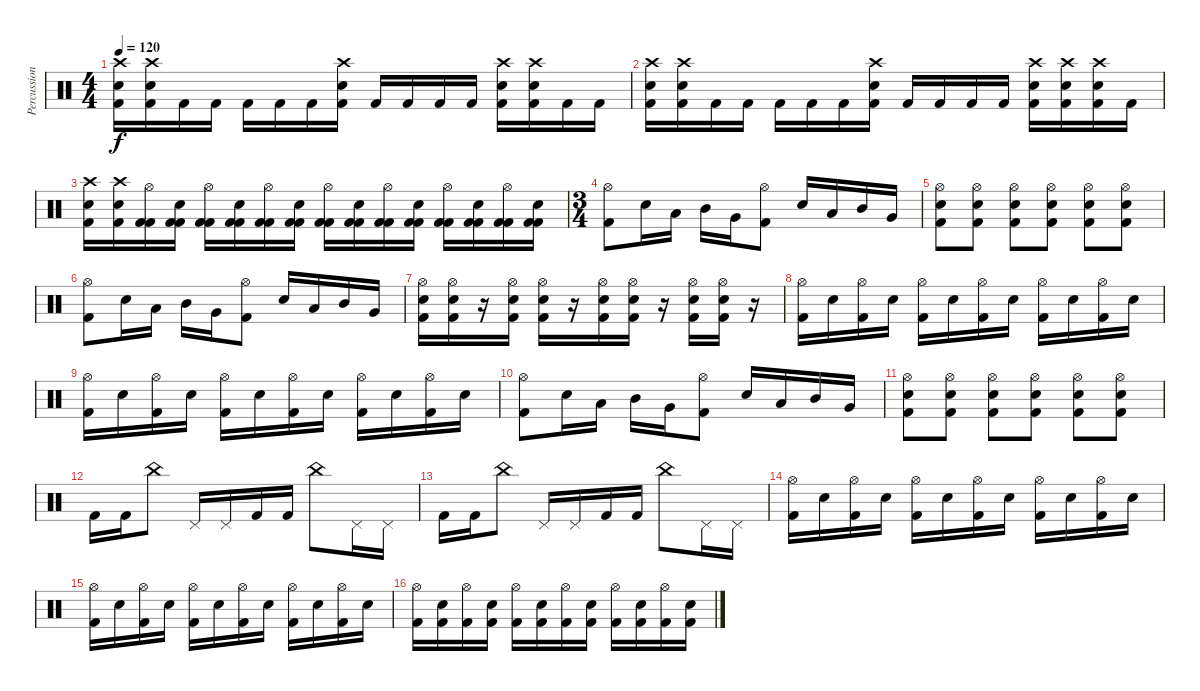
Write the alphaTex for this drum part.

\track ("Percussion" "Percussion") {instrument percussion}
\staff {score}
\articulation defaults
\ts (4 4)
\tempo 120
\clef neutral
\ks c
("Crash high (hit)" "Electric Snare (hit)" "Kick (hit) 2").16{dy f} ("Crash high (hit)" "Electric Snare (hit)" "Kick (hit) 2").16 "Kick (hit) 2".16 "Kick (hit) 2".16 "Kick (hit) 2".16 "Kick (hit) 2".16 "Kick (hit) 2".16 ("Crash high (hit)" "Electric Snare (hit)" "Kick (hit) 2").16 "Kick (hit) 2".16 "Kick (hit) 2".16 "Kick (hit) 2".16 "Kick (hit) 2".16 ("Crash high (hit)" "Electric Snare (hit)" "Kick (hit) 2").16 ("Crash high (hit)" "Electric Snare (hit)" "Kick (hit) 2").16 "Kick (hit) 2".16 "Kick (hit) 2".16 |
("Crash high (hit)" "Electric Snare (hit)" "Kick (hit) 2").16 ("Crash high (hit)" "Electric Snare (hit)" "Kick (hit) 2").16 "Kick (hit) 2".16 "Kick (hit) 2".16 "Kick (hit) 2".16 "Kick (hit) 2".16 "Kick (hit) 2".16 ("Crash high (hit)" "Electric Snare (hit)" "Kick (hit) 2").16 "Kick (hit) 2".16 "Kick (hit) 2".16 "Kick (hit) 2".16 "Kick (hit) 2".16 ("Crash high (hit)" "Electric Snare (hit)" "Kick (hit) 2").16 ("Crash high (hit)" "Electric Snare (hit)" "Kick (hit) 2").16 ("Crash high (hit)" "Electric Snare (hit)" "Kick (hit) 2").16 "Kick (hit) 2".16 |
("Crash high (hit)" "Electric Snare (hit)" "Kick (hit) 2").16 ("Crash high (hit)" "Electric Snare (hit)" "Kick (hit) 2").16 ("Kick (hit) 2" "Hi-Hat (open)" "Kick (hit) 2").16 ("Kick (hit) 2" "Electric Snare (hit)" "Kick (hit) 2").16 ("Kick (hit) 2" "Hi-Hat (open)" "Kick (hit) 2").16 ("Kick (hit) 2" "Electric Snare (hit)" "Kick (hit) 2").16 ("Kick (hit) 2" "Hi-Hat (open)" "Kick (hit) 2").16 ("Kick (hit) 2" "Electric Snare (hit)" "Kick (hit) 2").16 ("Kick (hit) 2" "Hi-Hat (open)" "Kick (hit) 2").16 ("Kick (hit) 2" "Electric Snare (hit)" "Kick (hit) 2").16 ("Kick (hit) 2" "Hi-Hat (open)" "Kick (hit) 2").16 ("Kick (hit) 2" "Electric Snare (hit)" "Kick (hit) 2").16 ("Kick (hit) 2" "Hi-Hat (open)" "Kick (hit) 2").16 ("Kick (hit) 2" "Electric Snare (hit)" "Kick (hit) 2").16 ("Kick (hit) 2" "Hi-Hat (open)" "Kick (hit) 2").16 ("Kick (hit) 2" "Electric Snare (hit)" "Kick (hit) 2").16 |
\ts (3 4)
("Hi-Hat (open)" "Kick (hit) 2").8 "Electric Snare (hit)".16 "Low Floor Tom (hit)".16 "Mid Tom (hit)".16 "Very Low Tom (hit)".16 ("Hi-Hat (open)" "Kick (hit) 2").8 "Electric Snare (hit)".16 "Low Floor Tom (hit)".16 "Mid Tom (hit)".16 "Very Low Tom (hit)".16 |
("Hi-Hat (open)" "Kick (hit) 2" "Electric Snare (hit)").8 ("Hi-Hat (open)" "Kick (hit) 2" "Electric Snare (hit)").8 ("Hi-Hat (open)" "Kick (hit) 2" "Electric Snare (hit)").8 ("Hi-Hat (open)" "Kick (hit) 2" "Electric Snare (hit)").8 ("Hi-Hat (open)" "Kick (hit) 2" "Electric Snare (hit)").8 ("Hi-Hat (open)" "Kick (hit) 2" "Electric Snare (hit)").8 |
("Hi-Hat (open)" "Kick (hit) 2").8 "Electric Snare (hit)".16 "Low Floor Tom (hit)".16 "Mid Tom (hit)".16 "Very Low Tom (hit)".16 ("Hi-Hat (open)" "Kick (hit) 2").8 "Electric Snare (hit)".16 "Low Floor Tom (hit)".16 "Mid Tom (hit)".16 "Very Low Tom (hit)".16 |
("Hi-Hat (open)" "Electric Snare (hit)" "Kick (hit) 2").16 ("Hi-Hat (open)" "Electric Snare (hit)" "Kick (hit) 2").16 r.16 ("Hi-Hat (open)" "Electric Snare (hit)" "Kick (hit) 2").16 ("Hi-Hat (open)" "Electric Snare (hit)" "Kick (hit) 2").16 r.16 ("Hi-Hat (open)" "Electric Snare (hit)" "Kick (hit) 2").16 ("Hi-Hat (open)" "Electric Snare (hit)" "Kick (hit) 2").16 r.16 ("Hi-Hat (open)" "Electric Snare (hit)" "Kick (hit) 2").16 ("Hi-Hat (open)" "Electric Snare (hit)" "Kick (hit) 2").16 r.16 |
("Hi-Hat (open)" "Kick (hit) 2").16 "Electric Snare (hit)".16 ("Hi-Hat (open)" "Kick (hit) 2").16 "Electric Snare (hit)".16 ("Hi-Hat (open)" "Kick (hit) 2").16 "Electric Snare (hit)".16 ("Hi-Hat (open)" "Kick (hit) 2").16 "Electric Snare (hit)".16 ("Hi-Hat (open)" "Kick (hit) 2").16 "Electric Snare (hit)".16 ("Hi-Hat (open)" "Kick (hit) 2").16 "Electric Snare (hit)".16 |
("Hi-Hat (open)" "Kick (hit) 2").16 "Electric Snare (hit)".16 ("Hi-Hat (open)" "Kick (hit) 2").16 "Electric Snare (hit)".16 ("Hi-Hat (open)" "Kick (hit) 2").16 "Electric Snare (hit)".16 ("Hi-Hat (open)" "Kick (hit) 2").16 "Electric Snare (hit)".16 ("Hi-Hat (open)" "Kick (hit) 2").16 "Electric Snare (hit)".16 ("Hi-Hat (open)" "Kick (hit) 2").16 "Electric Snare (hit)".16 |
("Hi-Hat (open)" "Kick (hit) 2").8 "Electric Snare (hit)".16 "Low Floor Tom (hit)".16 "Mid Tom (hit)".16 "Very Low Tom (hit)".16 ("Hi-Hat (open)" "Kick (hit) 2").8 "Electric Snare (hit)".16 "Low Floor Tom (hit)".16 "Mid Tom (hit)".16 "Very Low Tom (hit)".16 |
("Hi-Hat (open)" "Kick (hit) 2" "Electric Snare (hit)").8 ("Hi-Hat (open)" "Kick (hit) 2" "Electric Snare (hit)").8 ("Hi-Hat (open)" "Kick (hit) 2" "Electric Snare (hit)").8 ("Hi-Hat (open)" "Kick (hit) 2" "Electric Snare (hit)").8 ("Hi-Hat (open)" "Kick (hit) 2" "Electric Snare (hit)").8 ("Hi-Hat (open)" "Kick (hit) 2" "Electric Snare (hit)").8 |
"Kick (hit) 2".16 "Kick (hit) 2".16 "China (hit)".8 "Pedal Hi-Hat (hit)".16 "Pedal Hi-Hat (hit)".16 "Kick (hit) 2".16 "Kick (hit) 2".16 "China (hit)".8 "Pedal Hi-Hat (hit)".16 "Pedal Hi-Hat (hit)".16 |
"Kick (hit) 2".16 "Kick (hit) 2".16 "China (hit)".8 "Pedal Hi-Hat (hit)".16 "Pedal Hi-Hat (hit)".16 "Kick (hit) 2".16 "Kick (hit) 2".16 "China (hit)".8 "Pedal Hi-Hat (hit)".16 "Pedal Hi-Hat (hit)".16 |
("Hi-Hat (open)" "Kick (hit) 2").16 "Electric Snare (hit)".16 ("Hi-Hat (open)" "Kick (hit) 2").16 "Electric Snare (hit)".16 ("Hi-Hat (open)" "Kick (hit) 2").16 "Electric Snare (hit)".16 ("Hi-Hat (open)" "Kick (hit) 2").16 "Electric Snare (hit)".16 ("Hi-Hat (open)" "Kick (hit) 2").16 "Electric Snare (hit)".16 ("Hi-Hat (open)" "Kick (hit) 2").16 "Electric Snare (hit)".16 |
("Hi-Hat (open)" "Kick (hit) 2").16 "Electric Snare (hit)".16 ("Hi-Hat (open)" "Kick (hit) 2").16 "Electric Snare (hit)".16 ("Hi-Hat (open)" "Kick (hit) 2").16 "Electric Snare (hit)".16 ("Hi-Hat (open)" "Kick (hit) 2").16 "Electric Snare (hit)".16 ("Hi-Hat (open)" "Kick (hit) 2").16 "Electric Snare (hit)".16 ("Hi-Hat (open)" "Kick (hit) 2").16 "Electric Snare (hit)".16 |
("Hi-Hat (open)" "Kick (hit) 2").16 ("Electric Snare (hit)" "Kick (hit) 2").16 ("Hi-Hat (open)" "Kick (hit) 2").16 ("Electric Snare (hit)" "Kick (hit) 2").16 ("Hi-Hat (open)" "Kick (hit) 2").16 ("Electric Snare (hit)" "Kick (hit) 2").16 ("Hi-Hat (open)" "Kick (hit) 2").16 ("Electric Snare (hit)" "Kick (hit) 2").16 ("Hi-Hat (open)" "Kick (hit) 2").16 ("Electric Snare (hit)" "Kick (hit) 2").16 ("Hi-Hat (open)" "Kick (hit) 2").16 ("Electric Snare (hit)" "Kick (hit) 2").16
